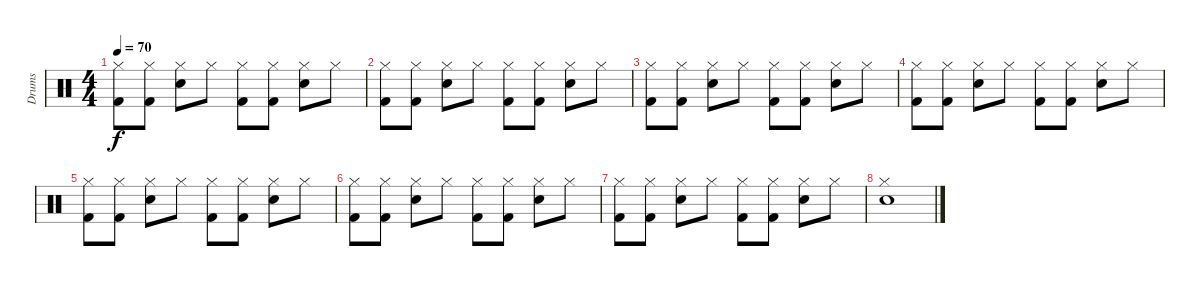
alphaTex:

\track ("Drums" "Drums") {instrument percussion bank 177}
\staff {score}
\articulation defaults
\ts (4 4)
\tempo 70
\clef neutral
\ks c
("Kick (hit) 2" "Hi-Hat (closed)").8{dy f} ("Hi-Hat (closed)" "Kick (hit) 2").8 ("Hi-Hat (closed)" "Snare (hit) 2").8 "Hi-Hat (closed)".8 ("Kick (hit) 2" "Hi-Hat (closed)").8 ("Hi-Hat (closed)" "Kick (hit) 2").8 ("Hi-Hat (closed)" "Snare (hit) 2").8 "Hi-Hat (closed)".8 |
("Kick (hit) 2" "Hi-Hat (closed)").8 ("Hi-Hat (closed)" "Kick (hit) 2").8 ("Hi-Hat (closed)" "Snare (hit) 2").8 "Hi-Hat (closed)".8 ("Kick (hit) 2" "Hi-Hat (closed)").8 ("Hi-Hat (closed)" "Kick (hit) 2").8 ("Hi-Hat (closed)" "Snare (hit) 2").8 "Hi-Hat (closed)".8 |
("Kick (hit) 2" "Hi-Hat (closed)").8 ("Hi-Hat (closed)" "Kick (hit) 2").8 ("Hi-Hat (closed)" "Snare (hit) 2").8 "Hi-Hat (closed)".8 ("Kick (hit) 2" "Hi-Hat (closed)").8 ("Hi-Hat (closed)" "Kick (hit) 2").8 ("Hi-Hat (closed)" "Snare (hit) 2").8 "Hi-Hat (closed)".8 |
("Kick (hit) 2" "Hi-Hat (closed)").8 ("Hi-Hat (closed)" "Kick (hit) 2").8 ("Hi-Hat (closed)" "Snare (hit) 2").8 "Hi-Hat (closed)".8 ("Kick (hit) 2" "Hi-Hat (closed)").8 ("Hi-Hat (closed)" "Kick (hit) 2").8 ("Hi-Hat (closed)" "Snare (hit) 2").8 "Hi-Hat (closed)".8 |
("Kick (hit) 2" "Hi-Hat (closed)").8 ("Hi-Hat (closed)" "Kick (hit) 2").8 ("Hi-Hat (closed)" "Snare (hit) 2").8 "Hi-Hat (closed)".8 ("Kick (hit) 2" "Hi-Hat (closed)").8 ("Hi-Hat (closed)" "Kick (hit) 2").8 ("Hi-Hat (closed)" "Snare (hit) 2").8 "Hi-Hat (closed)".8 |
("Kick (hit) 2" "Hi-Hat (closed)").8 ("Hi-Hat (closed)" "Kick (hit) 2").8 ("Hi-Hat (closed)" "Snare (hit) 2").8 "Hi-Hat (closed)".8 ("Kick (hit) 2" "Hi-Hat (closed)").8 ("Hi-Hat (closed)" "Kick (hit) 2").8 ("Hi-Hat (closed)" "Snare (hit) 2").8 "Hi-Hat (closed)".8 |
("Kick (hit) 2" "Hi-Hat (closed)").8 ("Hi-Hat (closed)" "Kick (hit) 2").8 ("Hi-Hat (closed)" "Snare (hit) 2").8 "Hi-Hat (closed)".8 ("Kick (hit) 2" "Hi-Hat (closed)").8 ("Hi-Hat (closed)" "Kick (hit) 2").8 ("Hi-Hat (closed)" "Snare (hit) 2").8 "Hi-Hat (closed)".8 |
("Hi-Hat (closed)" "Snare (hit) 2").1
